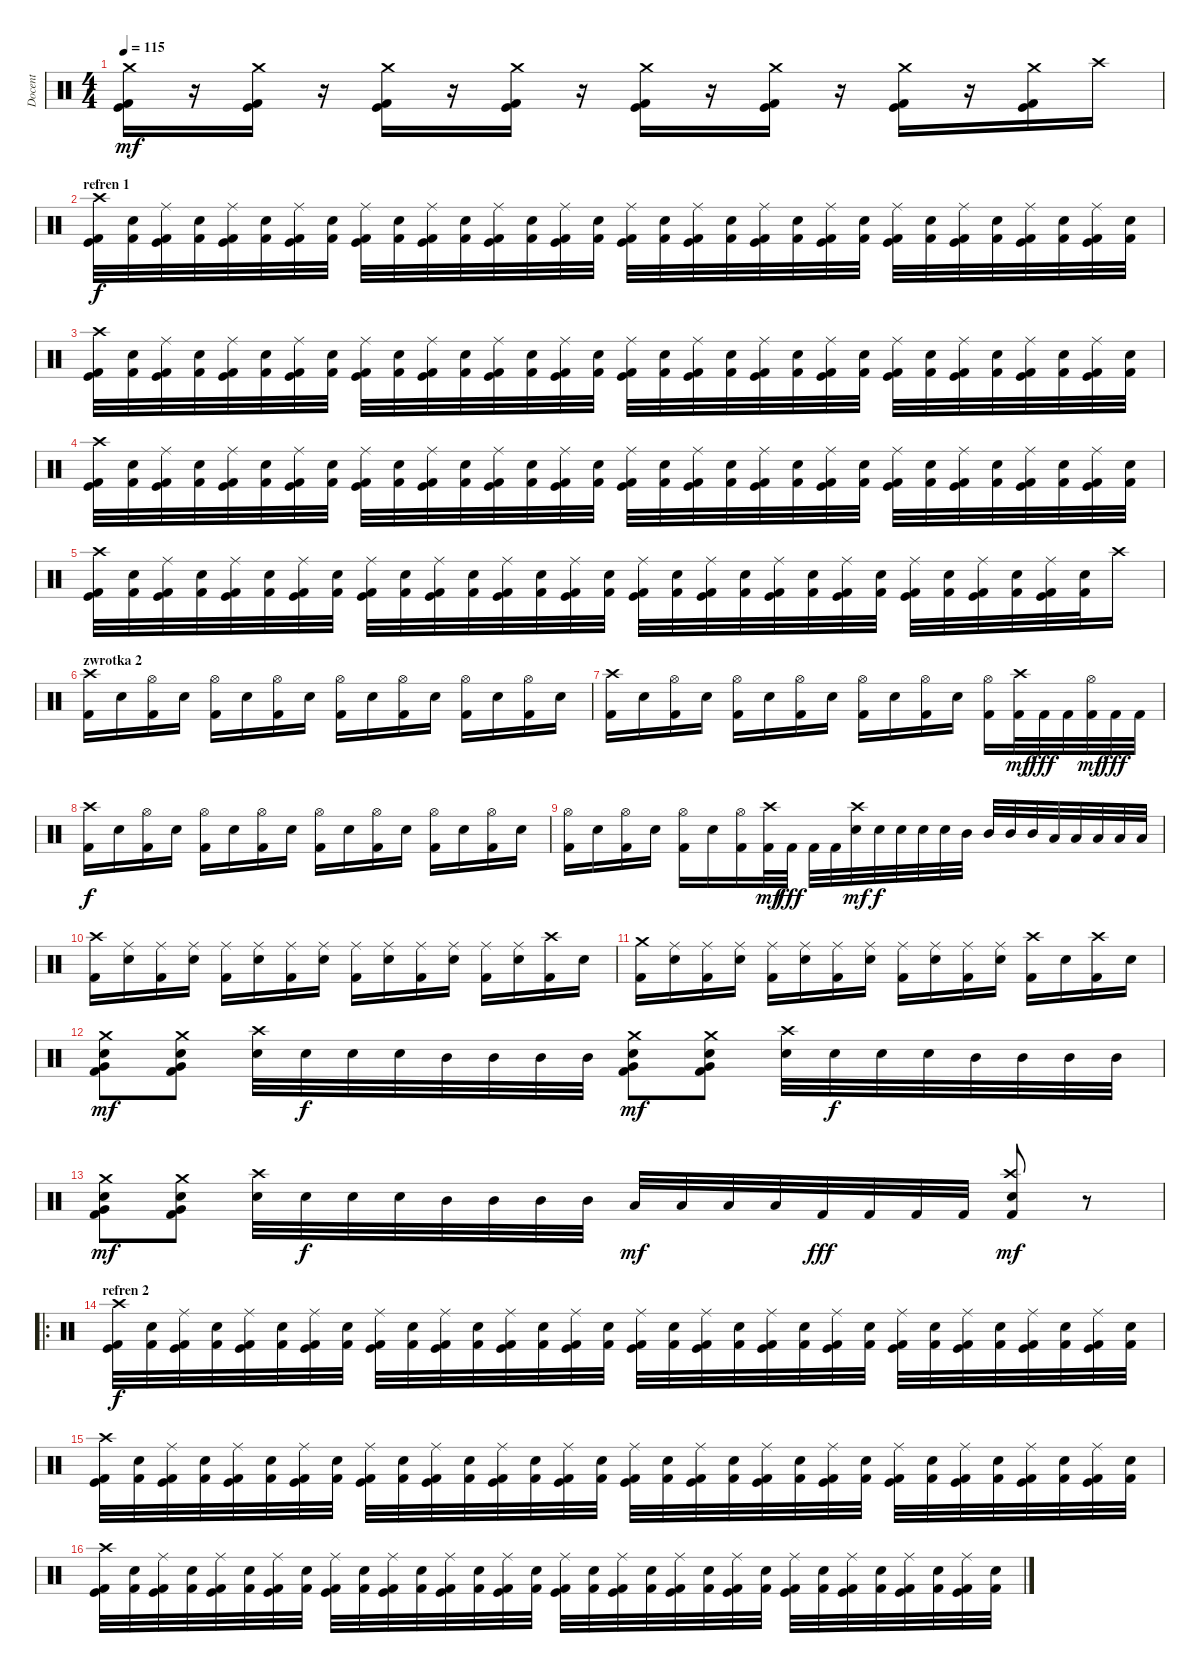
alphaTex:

\track ("Docent" "Docent") {instrument percussion}
\staff {score}
\articulation defaults
\ts (4 4)
\tempo 115
\clef neutral
\ks c
("Crash medium (hit)" "Kick (hit)" "Kick (hit) 2").16{dy mf} r.16 ("Crash medium (hit)" "Kick (hit)" "Kick (hit) 2").16 r.16 ("Crash medium (hit)" "Kick (hit)" "Kick (hit) 2").16 r.16 ("Crash medium (hit)" "Kick (hit)" "Kick (hit) 2").16 r.16 ("Crash medium (hit)" "Kick (hit)" "Kick (hit) 2").16 r.16 ("Crash medium (hit)" "Kick (hit)" "Kick (hit) 2").16 r.16 ("Crash medium (hit)" "Kick (hit)" "Kick (hit) 2").16 r.16 ("Crash medium (hit)" "Kick (hit)" "Kick (hit) 2").16 "Crash high (hit)".16 |
\section ("" "refren 1")
("Crash high (hit)" "Kick (hit)" "Kick (hit) 2").32{dy f} ("Snare (hit) 2" "Kick (hit) 2").32 ("Ride (middle)" "Kick (hit)" "Kick (hit) 2").32 ("Snare (hit) 2" "Kick (hit) 2").32 ("Ride (middle)" "Kick (hit)" "Kick (hit) 2").32 ("Snare (hit) 2" "Kick (hit) 2").32 ("Ride (middle)" "Kick (hit)" "Kick (hit) 2").32 ("Snare (hit) 2" "Kick (hit) 2").32 ("Ride (middle)" "Kick (hit)" "Kick (hit) 2").32 ("Snare (hit) 2" "Kick (hit) 2").32 ("Ride (middle)" "Kick (hit)" "Kick (hit) 2").32 ("Snare (hit) 2" "Kick (hit) 2").32 ("Ride (middle)" "Kick (hit)" "Kick (hit) 2").32 ("Snare (hit) 2" "Kick (hit) 2").32 ("Ride (middle)" "Kick (hit)" "Kick (hit) 2").32 ("Snare (hit) 2" "Kick (hit) 2").32 ("Ride (middle)" "Kick (hit)" "Kick (hit) 2").32 ("Snare (hit) 2" "Kick (hit) 2").32 ("Ride (middle)" "Kick (hit)" "Kick (hit) 2").32 ("Snare (hit) 2" "Kick (hit) 2").32 ("Ride (middle)" "Kick (hit)" "Kick (hit) 2").32 ("Snare (hit) 2" "Kick (hit) 2").32 ("Ride (middle)" "Kick (hit)" "Kick (hit) 2").32 ("Snare (hit) 2" "Kick (hit) 2").32 ("Ride (middle)" "Kick (hit)" "Kick (hit) 2").32 ("Snare (hit) 2" "Kick (hit) 2").32 ("Ride (middle)" "Kick (hit)" "Kick (hit) 2").32 ("Snare (hit) 2" "Kick (hit) 2").32 ("Ride (middle)" "Kick (hit)" "Kick (hit) 2").32 ("Snare (hit) 2" "Kick (hit) 2").32 ("Ride (middle)" "Kick (hit)" "Kick (hit) 2").32 ("Snare (hit) 2" "Kick (hit) 2").32 |
("Crash high (hit)" "Kick (hit)" "Kick (hit) 2").32 ("Snare (hit) 2" "Kick (hit) 2").32 ("Ride (middle)" "Kick (hit)" "Kick (hit) 2").32 ("Snare (hit) 2" "Kick (hit) 2").32 ("Ride (middle)" "Kick (hit)" "Kick (hit) 2").32 ("Snare (hit) 2" "Kick (hit) 2").32 ("Ride (middle)" "Kick (hit)" "Kick (hit) 2").32 ("Snare (hit) 2" "Kick (hit) 2").32 ("Ride (middle)" "Kick (hit)" "Kick (hit) 2").32 ("Snare (hit) 2" "Kick (hit) 2").32 ("Ride (middle)" "Kick (hit)" "Kick (hit) 2").32 ("Snare (hit) 2" "Kick (hit) 2").32 ("Ride (middle)" "Kick (hit)" "Kick (hit) 2").32 ("Snare (hit) 2" "Kick (hit) 2").32 ("Ride (middle)" "Kick (hit)" "Kick (hit) 2").32 ("Snare (hit) 2" "Kick (hit) 2").32 ("Ride (middle)" "Kick (hit)" "Kick (hit) 2").32 ("Snare (hit) 2" "Kick (hit) 2").32 ("Ride (middle)" "Kick (hit)" "Kick (hit) 2").32 ("Snare (hit) 2" "Kick (hit) 2").32 ("Ride (middle)" "Kick (hit)" "Kick (hit) 2").32 ("Snare (hit) 2" "Kick (hit) 2").32 ("Ride (middle)" "Kick (hit)" "Kick (hit) 2").32 ("Snare (hit) 2" "Kick (hit) 2").32 ("Ride (middle)" "Kick (hit)" "Kick (hit) 2").32 ("Snare (hit) 2" "Kick (hit) 2").32 ("Ride (middle)" "Kick (hit)" "Kick (hit) 2").32 ("Snare (hit) 2" "Kick (hit) 2").32 ("Ride (middle)" "Kick (hit)" "Kick (hit) 2").32 ("Snare (hit) 2" "Kick (hit) 2").32 ("Ride (middle)" "Kick (hit)" "Kick (hit) 2").32 ("Snare (hit) 2" "Kick (hit) 2").32 |
("Crash high (hit)" "Kick (hit)" "Kick (hit) 2").32 ("Snare (hit) 2" "Kick (hit) 2").32 ("Ride (middle)" "Kick (hit)" "Kick (hit) 2").32 ("Snare (hit) 2" "Kick (hit) 2").32 ("Ride (middle)" "Kick (hit)" "Kick (hit) 2").32 ("Snare (hit) 2" "Kick (hit) 2").32 ("Ride (middle)" "Kick (hit)" "Kick (hit) 2").32 ("Snare (hit) 2" "Kick (hit) 2").32 ("Ride (middle)" "Kick (hit)" "Kick (hit) 2").32 ("Snare (hit) 2" "Kick (hit) 2").32 ("Ride (middle)" "Kick (hit)" "Kick (hit) 2").32 ("Snare (hit) 2" "Kick (hit) 2").32 ("Ride (middle)" "Kick (hit)" "Kick (hit) 2").32 ("Snare (hit) 2" "Kick (hit) 2").32 ("Ride (middle)" "Kick (hit)" "Kick (hit) 2").32 ("Snare (hit) 2" "Kick (hit) 2").32 ("Ride (middle)" "Kick (hit)" "Kick (hit) 2").32 ("Snare (hit) 2" "Kick (hit) 2").32 ("Ride (middle)" "Kick (hit)" "Kick (hit) 2").32 ("Snare (hit) 2" "Kick (hit) 2").32 ("Ride (middle)" "Kick (hit)" "Kick (hit) 2").32 ("Snare (hit) 2" "Kick (hit) 2").32 ("Ride (middle)" "Kick (hit)" "Kick (hit) 2").32 ("Snare (hit) 2" "Kick (hit) 2").32 ("Ride (middle)" "Kick (hit)" "Kick (hit) 2").32 ("Snare (hit) 2" "Kick (hit) 2").32 ("Ride (middle)" "Kick (hit)" "Kick (hit) 2").32 ("Snare (hit) 2" "Kick (hit) 2").32 ("Ride (middle)" "Kick (hit)" "Kick (hit) 2").32 ("Snare (hit) 2" "Kick (hit) 2").32 ("Ride (middle)" "Kick (hit)" "Kick (hit) 2").32 ("Snare (hit) 2" "Kick (hit) 2").32 |
("Crash high (hit)" "Kick (hit)" "Kick (hit) 2").32 ("Snare (hit) 2" "Kick (hit) 2").32 ("Ride (middle)" "Kick (hit)" "Kick (hit) 2").32 ("Snare (hit) 2" "Kick (hit) 2").32 ("Ride (middle)" "Kick (hit)" "Kick (hit) 2").32 ("Snare (hit) 2" "Kick (hit) 2").32 ("Ride (middle)" "Kick (hit)" "Kick (hit) 2").32 ("Snare (hit) 2" "Kick (hit) 2").32 ("Ride (middle)" "Kick (hit)" "Kick (hit) 2").32 ("Snare (hit) 2" "Kick (hit) 2").32 ("Ride (middle)" "Kick (hit)" "Kick (hit) 2").32 ("Snare (hit) 2" "Kick (hit) 2").32 ("Ride (middle)" "Kick (hit)" "Kick (hit) 2").32 ("Snare (hit) 2" "Kick (hit) 2").32 ("Ride (middle)" "Kick (hit)" "Kick (hit) 2").32 ("Snare (hit) 2" "Kick (hit) 2").32 ("Ride (middle)" "Kick (hit)" "Kick (hit) 2").32 ("Snare (hit) 2" "Kick (hit) 2").32 ("Ride (middle)" "Kick (hit)" "Kick (hit) 2").32 ("Snare (hit) 2" "Kick (hit) 2").32 ("Ride (middle)" "Kick (hit)" "Kick (hit) 2").32 ("Snare (hit) 2" "Kick (hit) 2").32 ("Ride (middle)" "Kick (hit)" "Kick (hit) 2").32 ("Snare (hit) 2" "Kick (hit) 2").32 ("Ride (middle)" "Kick (hit)" "Kick (hit) 2").32 ("Snare (hit) 2" "Kick (hit) 2").32 ("Ride (middle)" "Kick (hit)" "Kick (hit) 2").32 ("Snare (hit) 2" "Kick (hit) 2").32 ("Ride (middle)" "Kick (hit)" "Kick (hit) 2").32 ("Snare (hit) 2" "Kick (hit) 2").32 "Crash high (hit)".16 |
\section ("" "zwrotka 2")
("Crash high (hit)" "Kick (hit) 2").16 "Snare (hit) 2".16 ("Hi-Hat (open)" "Kick (hit) 2").16 "Snare (hit) 2".16 ("Hi-Hat (open)" "Kick (hit) 2").16 "Snare (hit) 2".16 ("Hi-Hat (open)" "Kick (hit) 2").16 "Snare (hit) 2".16 ("Hi-Hat (open)" "Kick (hit) 2").16 "Snare (hit) 2".16 ("Hi-Hat (open)" "Kick (hit) 2").16 "Snare (hit) 2".16 ("Hi-Hat (open)" "Kick (hit) 2").16 "Snare (hit) 2".16 ("Hi-Hat (open)" "Kick (hit) 2").16 "Snare (hit) 2".16 |
("Crash high (hit)" "Kick (hit) 2").16 "Snare (hit) 2".16 ("Hi-Hat (open)" "Kick (hit) 2").16 "Snare (hit) 2".16 ("Hi-Hat (open)" "Kick (hit) 2").16 "Snare (hit) 2".16 ("Hi-Hat (open)" "Kick (hit) 2").16 "Snare (hit) 2".16 ("Hi-Hat (open)" "Kick (hit) 2").16 "Snare (hit) 2".16 ("Hi-Hat (open)" "Kick (hit) 2").16 "Snare (hit) 2".16 ("Hi-Hat (open)" "Kick (hit) 2").16 ("Crash high (hit)" "Kick (hit) 2").32{dy mf} "Kick (hit) 2".32{dy fff} "Kick (hit) 2".32 ("Hi-Hat (open)" "Kick (hit) 2").32{dy mf} "Kick (hit) 2".32{dy fff} "Kick (hit) 2".32 |
("Crash high (hit)" "Kick (hit) 2").16{dy f} "Snare (hit) 2".16 ("Hi-Hat (open)" "Kick (hit) 2").16 "Snare (hit) 2".16 ("Hi-Hat (open)" "Kick (hit) 2").16 "Snare (hit) 2".16 ("Hi-Hat (open)" "Kick (hit) 2").16 "Snare (hit) 2".16 ("Hi-Hat (open)" "Kick (hit) 2").16 "Snare (hit) 2".16 ("Hi-Hat (open)" "Kick (hit) 2").16 "Snare (hit) 2".16 ("Hi-Hat (open)" "Kick (hit) 2").16 "Snare (hit) 2".16 ("Hi-Hat (open)" "Kick (hit) 2").16 "Snare (hit) 2".16 |
("Hi-Hat (open)" "Kick (hit) 2").16 "Snare (hit) 2".16 ("Hi-Hat (open)" "Kick (hit) 2").16 "Snare (hit) 2".16 ("Hi-Hat (open)" "Kick (hit) 2").16 "Snare (hit) 2".16 ("Hi-Hat (open)" "Kick (hit) 2").16 ("Crash high (hit)" "Kick (hit) 2").32{dy mf} "Kick (hit) 2".32{dy fff} "Kick (hit) 2".32 "Kick (hit) 2".32 ("Crash high (hit)" "Snare (hit) 2").32{dy mf} "Snare (hit) 2".32{dy f} "Snare (hit) 2".32 "Snare (hit) 2".32 "Snare (hit) 2".32 "Mid Tom (hit)".32 "Mid Tom (hit)".32 "Mid Tom (hit)".32 "Mid Tom (hit)".32 "Low Tom (hit)".32 "Low Tom (hit)".32 "Low Tom (hit)".32 "Low Tom (hit)".32 "Low Tom (hit)".32 |
("Crash high (hit)" "Kick (hit) 2").16 ("Ride (middle)" "Snare (hit) 2").16 ("Ride (middle)" "Kick (hit) 2").16 ("Ride (middle)" "Snare (hit) 2").16 ("Ride (middle)" "Kick (hit) 2").16 ("Ride (middle)" "Snare (hit) 2").16 ("Ride (middle)" "Kick (hit) 2").16 ("Ride (middle)" "Snare (hit) 2").16 ("Ride (middle)" "Kick (hit) 2").16 ("Ride (middle)" "Snare (hit) 2").16 ("Ride (middle)" "Kick (hit) 2").16 ("Ride (middle)" "Snare (hit) 2").16 ("Ride (middle)" "Kick (hit) 2").16 ("Ride (middle)" "Snare (hit) 2").16 ("Crash high (hit)" "Kick (hit) 2").16 "Snare (hit) 2".16 |
("Crash medium (hit)" "Kick (hit) 2").16 ("Ride (middle)" "Snare (hit) 2").16 ("Ride (middle)" "Kick (hit) 2").16 ("Ride (middle)" "Snare (hit) 2").16 ("Ride (middle)" "Kick (hit) 2").16 ("Ride (middle)" "Snare (hit) 2").16 ("Ride (middle)" "Kick (hit) 2").16 ("Ride (middle)" "Snare (hit) 2").16 ("Ride (middle)" "Kick (hit) 2").16 ("Ride (middle)" "Snare (hit) 2").16 ("Ride (middle)" "Kick (hit) 2").16 ("Ride (middle)" "Snare (hit) 2").16 ("Crash high (hit)" "Kick (hit) 2").16 "Snare (hit) 2".16 ("Crash high (hit)" "Kick (hit) 2").16 "Snare (hit) 2".16 |
("Crash medium (hit)" "Very Low Tom (hit)" "Kick (hit) 2" "Snare (hit) 2").8{dy mf} ("Crash medium (hit)" "Very Low Tom (hit)" "Kick (hit) 2" "Snare (hit) 2").8 ("Crash high (hit)" "Snare (hit) 2").32 "Snare (hit) 2".32{dy f} "Snare (hit) 2".32 "Snare (hit) 2".32 "Mid Tom (hit)".32 "Mid Tom (hit)".32 "Mid Tom (hit)".32 "Mid Tom (hit)".32 ("Crash medium (hit)" "Very Low Tom (hit)" "Kick (hit) 2" "Snare (hit) 2").8{dy mf} ("Crash medium (hit)" "Very Low Tom (hit)" "Kick (hit) 2" "Snare (hit) 2").8 ("Crash high (hit)" "Snare (hit) 2").32 "Snare (hit) 2".32{dy f} "Snare (hit) 2".32 "Snare (hit) 2".32 "Mid Tom (hit)".32 "Mid Tom (hit)".32 "Mid Tom (hit)".32 "Mid Tom (hit)".32 |
("Crash medium (hit)" "Very Low Tom (hit)" "Kick (hit) 2" "Snare (hit) 2").8{dy mf} ("Crash medium (hit)" "Very Low Tom (hit)" "Kick (hit) 2" "Snare (hit) 2").8 ("Crash high (hit)" "Snare (hit) 2").32 "Snare (hit) 2".32{dy f} "Snare (hit) 2".32 "Snare (hit) 2".32 "Mid Tom (hit)".32 "Mid Tom (hit)".32 "Mid Tom (hit)".32 "Mid Tom (hit)".32 "Low Tom (hit)".32{dy mf} "Low Tom (hit)".32 "Low Tom (hit)".32 "Low Tom (hit)".32 "Kick (hit) 2".32{dy fff} "Kick (hit) 2".32 "Kick (hit) 2".32 "Kick (hit) 2".32 ("Crash high (hit)" "Snare (hit) 2" "Kick (hit) 2").8{dy mf} r.8 |
\ro
\section ("" "refren 2")
("Crash high (hit)" "Kick (hit)" "Kick (hit) 2").32{dy f} ("Snare (hit) 2" "Kick (hit) 2").32 ("Ride (middle)" "Kick (hit)" "Kick (hit) 2").32 ("Snare (hit) 2" "Kick (hit) 2").32 ("Ride (middle)" "Kick (hit)" "Kick (hit) 2").32 ("Snare (hit) 2" "Kick (hit) 2").32 ("Ride (middle)" "Kick (hit)" "Kick (hit) 2").32 ("Snare (hit) 2" "Kick (hit) 2").32 ("Ride (middle)" "Kick (hit)" "Kick (hit) 2").32 ("Snare (hit) 2" "Kick (hit) 2").32 ("Ride (middle)" "Kick (hit)" "Kick (hit) 2").32 ("Snare (hit) 2" "Kick (hit) 2").32 ("Ride (middle)" "Kick (hit)" "Kick (hit) 2").32 ("Snare (hit) 2" "Kick (hit) 2").32 ("Ride (middle)" "Kick (hit)" "Kick (hit) 2").32 ("Snare (hit) 2" "Kick (hit) 2").32 ("Ride (middle)" "Kick (hit)" "Kick (hit) 2").32 ("Snare (hit) 2" "Kick (hit) 2").32 ("Ride (middle)" "Kick (hit)" "Kick (hit) 2").32 ("Snare (hit) 2" "Kick (hit) 2").32 ("Ride (middle)" "Kick (hit)" "Kick (hit) 2").32 ("Snare (hit) 2" "Kick (hit) 2").32 ("Ride (middle)" "Kick (hit)" "Kick (hit) 2").32 ("Snare (hit) 2" "Kick (hit) 2").32 ("Ride (middle)" "Kick (hit)" "Kick (hit) 2").32 ("Snare (hit) 2" "Kick (hit) 2").32 ("Ride (middle)" "Kick (hit)" "Kick (hit) 2").32 ("Snare (hit) 2" "Kick (hit) 2").32 ("Ride (middle)" "Kick (hit)" "Kick (hit) 2").32 ("Snare (hit) 2" "Kick (hit) 2").32 ("Ride (middle)" "Kick (hit)" "Kick (hit) 2").32 ("Snare (hit) 2" "Kick (hit) 2").32 |
("Crash high (hit)" "Kick (hit)" "Kick (hit) 2").32 ("Snare (hit) 2" "Kick (hit) 2").32 ("Ride (middle)" "Kick (hit)" "Kick (hit) 2").32 ("Snare (hit) 2" "Kick (hit) 2").32 ("Ride (middle)" "Kick (hit)" "Kick (hit) 2").32 ("Snare (hit) 2" "Kick (hit) 2").32 ("Ride (middle)" "Kick (hit)" "Kick (hit) 2").32 ("Snare (hit) 2" "Kick (hit) 2").32 ("Ride (middle)" "Kick (hit)" "Kick (hit) 2").32 ("Snare (hit) 2" "Kick (hit) 2").32 ("Ride (middle)" "Kick (hit)" "Kick (hit) 2").32 ("Snare (hit) 2" "Kick (hit) 2").32 ("Ride (middle)" "Kick (hit)" "Kick (hit) 2").32 ("Snare (hit) 2" "Kick (hit) 2").32 ("Ride (middle)" "Kick (hit)" "Kick (hit) 2").32 ("Snare (hit) 2" "Kick (hit) 2").32 ("Ride (middle)" "Kick (hit)" "Kick (hit) 2").32 ("Snare (hit) 2" "Kick (hit) 2").32 ("Ride (middle)" "Kick (hit)" "Kick (hit) 2").32 ("Snare (hit) 2" "Kick (hit) 2").32 ("Ride (middle)" "Kick (hit)" "Kick (hit) 2").32 ("Snare (hit) 2" "Kick (hit) 2").32 ("Ride (middle)" "Kick (hit)" "Kick (hit) 2").32 ("Snare (hit) 2" "Kick (hit) 2").32 ("Ride (middle)" "Kick (hit)" "Kick (hit) 2").32 ("Snare (hit) 2" "Kick (hit) 2").32 ("Ride (middle)" "Kick (hit)" "Kick (hit) 2").32 ("Snare (hit) 2" "Kick (hit) 2").32 ("Ride (middle)" "Kick (hit)" "Kick (hit) 2").32 ("Snare (hit) 2" "Kick (hit) 2").32 ("Ride (middle)" "Kick (hit)" "Kick (hit) 2").32 ("Snare (hit) 2" "Kick (hit) 2").32 |
("Crash high (hit)" "Kick (hit)" "Kick (hit) 2").32 ("Snare (hit) 2" "Kick (hit) 2").32 ("Ride (middle)" "Kick (hit)" "Kick (hit) 2").32 ("Snare (hit) 2" "Kick (hit) 2").32 ("Ride (middle)" "Kick (hit)" "Kick (hit) 2").32 ("Snare (hit) 2" "Kick (hit) 2").32 ("Ride (middle)" "Kick (hit)" "Kick (hit) 2").32 ("Snare (hit) 2" "Kick (hit) 2").32 ("Ride (middle)" "Kick (hit)" "Kick (hit) 2").32 ("Snare (hit) 2" "Kick (hit) 2").32 ("Ride (middle)" "Kick (hit)" "Kick (hit) 2").32 ("Snare (hit) 2" "Kick (hit) 2").32 ("Ride (middle)" "Kick (hit)" "Kick (hit) 2").32 ("Snare (hit) 2" "Kick (hit) 2").32 ("Ride (middle)" "Kick (hit)" "Kick (hit) 2").32 ("Snare (hit) 2" "Kick (hit) 2").32 ("Ride (middle)" "Kick (hit)" "Kick (hit) 2").32 ("Snare (hit) 2" "Kick (hit) 2").32 ("Ride (middle)" "Kick (hit)" "Kick (hit) 2").32 ("Snare (hit) 2" "Kick (hit) 2").32 ("Ride (middle)" "Kick (hit)" "Kick (hit) 2").32 ("Snare (hit) 2" "Kick (hit) 2").32 ("Ride (middle)" "Kick (hit)" "Kick (hit) 2").32 ("Snare (hit) 2" "Kick (hit) 2").32 ("Ride (middle)" "Kick (hit)" "Kick (hit) 2").32 ("Snare (hit) 2" "Kick (hit) 2").32 ("Ride (middle)" "Kick (hit)" "Kick (hit) 2").32 ("Snare (hit) 2" "Kick (hit) 2").32 ("Ride (middle)" "Kick (hit)" "Kick (hit) 2").32 ("Snare (hit) 2" "Kick (hit) 2").32 ("Ride (middle)" "Kick (hit)" "Kick (hit) 2").32 ("Snare (hit) 2" "Kick (hit) 2").32
